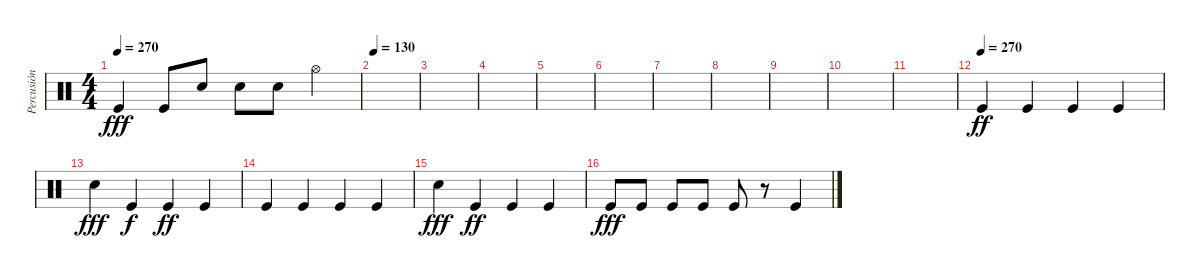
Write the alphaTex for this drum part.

\track ("Percusión" "Percusión") {instrument percussion}
\staff {score}
\articulation defaults
\ts (4 4)
\tempo 270
\clef neutral
\ks c "Kick (hit)".4{dy fff} "Kick (hit)".8 "Snare (hit) 2".8 "Snare (hit) 2".8 "Snare (hit) 2".8 "Hi-Hat (open)".4
|
\tempo 130
|
|
|
|
|
|
|
|
|
|
\tempo (270)
"Kick (hit)".4{dy ff} "Kick (hit)".4 "Kick (hit)".4 "Kick (hit)".4 |
"Snare (hit) 2".4{dy fff} "Kick (hit)".4{dy f} "Kick (hit)".4{dy ff} "Kick (hit)".4 |
"Kick (hit)".4 "Kick (hit)".4 "Kick (hit)".4 "Kick (hit)".4 |
"Snare (hit) 2".4{dy fff} "Kick (hit)".4{dy ff} "Kick (hit)".4 "Kick (hit)".4 |
"Kick (hit)".8{dy fff} "Kick (hit)".8 "Kick (hit)".8 "Kick (hit)".8 "Kick (hit)".8 r.8 "Kick (hit)".4
